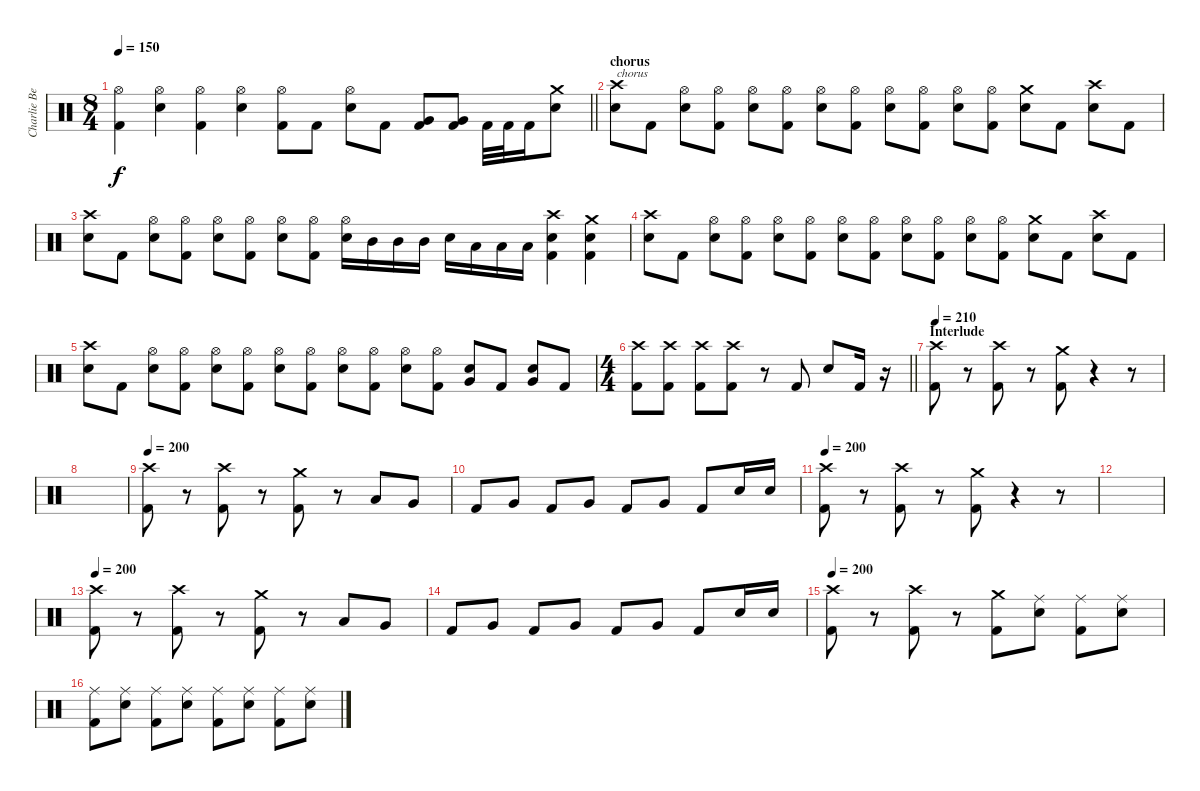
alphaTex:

\track ("Charlie Benante" "Charlie Be") {instrument percussion}
\staff {score}
\articulation defaults
\ts (8 4)
\tempo 150
\clef neutral
\barLineRight lightlight
\ks c
("Hi-Hat (open)" "Kick (hit) 2").4{dy f} ("Hi-Hat (open)" "Electric Snare (hit)").4 ("Hi-Hat (open)" "Kick (hit) 2").4 ("Hi-Hat (open)" "Electric Snare (hit)").4 ("Hi-Hat (open)" "Kick (hit) 2").8 "Kick (hit) 2".8 ("Hi-Hat (open)" "Electric Snare (hit)").8 "Kick (hit) 2".8 ("Very Low Tom (hit)" "Kick (hit) 2").8 ("Very Low Tom (hit)" "Kick (hit) 2").8 "Kick (hit) 2".32 "Kick (hit) 2".32 "Kick (hit) 2".16 ("Crash medium (hit)" "Electric Snare (hit)").8 |
\section ("" "chorus")
("Crash high (hit)" "Electric Snare (hit)").8{txt "chorus"} "Kick (hit) 2".8 ("Hi-Hat (open)" "Electric Snare (hit)").8 ("Hi-Hat (open)" "Kick (hit) 2").8 ("Hi-Hat (open)" "Electric Snare (hit)").8 ("Hi-Hat (open)" "Kick (hit) 2").8 ("Hi-Hat (open)" "Electric Snare (hit)").8 ("Hi-Hat (open)" "Kick (hit) 2").8 ("Hi-Hat (open)" "Electric Snare (hit)").8 ("Hi-Hat (open)" "Kick (hit) 2").8 ("Hi-Hat (open)" "Electric Snare (hit)").8 ("Hi-Hat (open)" "Kick (hit) 2").8 ("Crash medium (hit)" "Electric Snare (hit)").8 "Kick (hit) 2".8 ("Crash high (hit)" "Electric Snare (hit)").8 "Kick (hit) 2".8 |
("Crash high (hit)" "Electric Snare (hit)").8 "Kick (hit) 2".8 ("Hi-Hat (open)" "Electric Snare (hit)").8 ("Hi-Hat (open)" "Kick (hit) 2").8 ("Hi-Hat (open)" "Electric Snare (hit)").8 ("Hi-Hat (open)" "Kick (hit) 2").8 ("Hi-Hat (open)" "Electric Snare (hit)").8 ("Hi-Hat (open)" "Kick (hit) 2").8 ("Hi-Hat (open)" "Electric Snare (hit)").16 "Mid Tom (hit)".16 "Mid Tom (hit)".16 "Mid Tom (hit)".16 "Electric Snare (hit)".16 "Low Tom (hit)".16 "Low Tom (hit)".16 "Low Tom (hit)".16 ("Crash high (hit)" "Electric Snare (hit)" "Kick (hit) 2").4 ("Crash medium (hit)" "Electric Snare (hit)" "Kick (hit) 2").4 |
("Crash high (hit)" "Electric Snare (hit)").8 "Kick (hit) 2".8 ("Hi-Hat (open)" "Electric Snare (hit)").8 ("Hi-Hat (open)" "Kick (hit) 2").8 ("Hi-Hat (open)" "Electric Snare (hit)").8 ("Hi-Hat (open)" "Kick (hit) 2").8 ("Hi-Hat (open)" "Electric Snare (hit)").8 ("Hi-Hat (open)" "Kick (hit) 2").8 ("Hi-Hat (open)" "Electric Snare (hit)").8 ("Hi-Hat (open)" "Kick (hit) 2").8 ("Hi-Hat (open)" "Electric Snare (hit)").8 ("Hi-Hat (open)" "Kick (hit) 2").8 ("Crash medium (hit)" "Electric Snare (hit)").8 "Kick (hit) 2".8 ("Crash high (hit)" "Electric Snare (hit)").8 "Kick (hit) 2".8 |
("Crash high (hit)" "Electric Snare (hit)").8 "Kick (hit) 2".8 ("Hi-Hat (open)" "Electric Snare (hit)").8 ("Hi-Hat (open)" "Kick (hit) 2").8 ("Hi-Hat (open)" "Electric Snare (hit)").8 ("Hi-Hat (open)" "Kick (hit) 2").8 ("Hi-Hat (open)" "Electric Snare (hit)").8 ("Hi-Hat (open)" "Kick (hit) 2").8 ("Hi-Hat (open)" "Electric Snare (hit)").8 ("Hi-Hat (open)" "Kick (hit) 2").8 ("Hi-Hat (open)" "Electric Snare (hit)").8 ("Hi-Hat (open)" "Kick (hit) 2").8 ("Very Low Tom (hit)" "Electric Snare (hit)").8 "Kick (hit) 2".8 ("Very Low Tom (hit)" "Electric Snare (hit)").8 "Kick (hit) 2".8 |
\ts (4 4)
\barLineRight lightlight
("Crash high (hit)" "Kick (hit) 2").8 ("Crash high (hit)" "Kick (hit) 2").8 ("Crash high (hit)" "Kick (hit) 2").8 ("Crash high (hit)" "Kick (hit) 2").8 r.8 "Kick (hit) 2".8 "Electric Snare (hit)".8 "Kick (hit) 2".16 r.16 |
\section ("" "Interlude")
\tempo 200
\tempo 210
("Crash high (hit)" "Kick (hit) 2").8 r.8 ("Crash high (hit)" "Kick (hit) 2").8 r.8 ("Crash medium (hit)" "Kick (hit) 2").8 r.4 r.8 |
|
\tempo 200
("Crash high (hit)" "Kick (hit) 2").8 r.8 ("Crash high (hit)" "Kick (hit) 2").8 r.8 ("Crash medium (hit)" "Kick (hit) 2").8 r.8 "Low Tom (hit)".8 "Very Low Tom (hit)".8 |
"Kick (hit) 2".8 "Very Low Tom (hit)".8 "Kick (hit) 2".8 "Very Low Tom (hit)".8 "Kick (hit) 2".8 "Very Low Tom (hit)".8 "Kick (hit) 2".8 "Electric Snare (hit)".16 "Electric Snare (hit)".16 |
\tempo 200
("Crash high (hit)" "Kick (hit) 2").8 r.8 ("Crash high (hit)" "Kick (hit) 2").8 r.8 ("Crash medium (hit)" "Kick (hit) 2").8 r.4 r.8 |
|
\tempo 200
("Crash high (hit)" "Kick (hit) 2").8 r.8 ("Crash high (hit)" "Kick (hit) 2").8 r.8 ("Crash medium (hit)" "Kick (hit) 2").8 r.8 "Low Tom (hit)".8 "Very Low Tom (hit)".8 |
"Kick (hit) 2".8 "Very Low Tom (hit)".8 "Kick (hit) 2".8 "Very Low Tom (hit)".8 "Kick (hit) 2".8 "Very Low Tom (hit)".8 "Kick (hit) 2".8 "Electric Snare (hit)".16 "Electric Snare (hit)".16 |
\tempo 200
("Crash high (hit)" "Kick (hit) 2").8 r.8 ("Crash high (hit)" "Kick (hit) 2").8 r.8 ("Crash medium (hit)" "Kick (hit) 2").8 ("Ride (middle)" "Electric Snare (hit)").8 ("Ride (middle)" "Kick (hit) 2").8 ("Ride (middle)" "Electric Snare (hit)").8 |
("Ride (middle)" "Kick (hit) 2").8 ("Ride (middle)" "Electric Snare (hit)").8 ("Ride (middle)" "Kick (hit) 2").8 ("Ride (middle)" "Electric Snare (hit)").8 ("Ride (middle)" "Kick (hit) 2").8 ("Ride (middle)" "Electric Snare (hit)").8 ("Ride (middle)" "Kick (hit) 2").8 ("Ride (middle)" "Electric Snare (hit)").8
